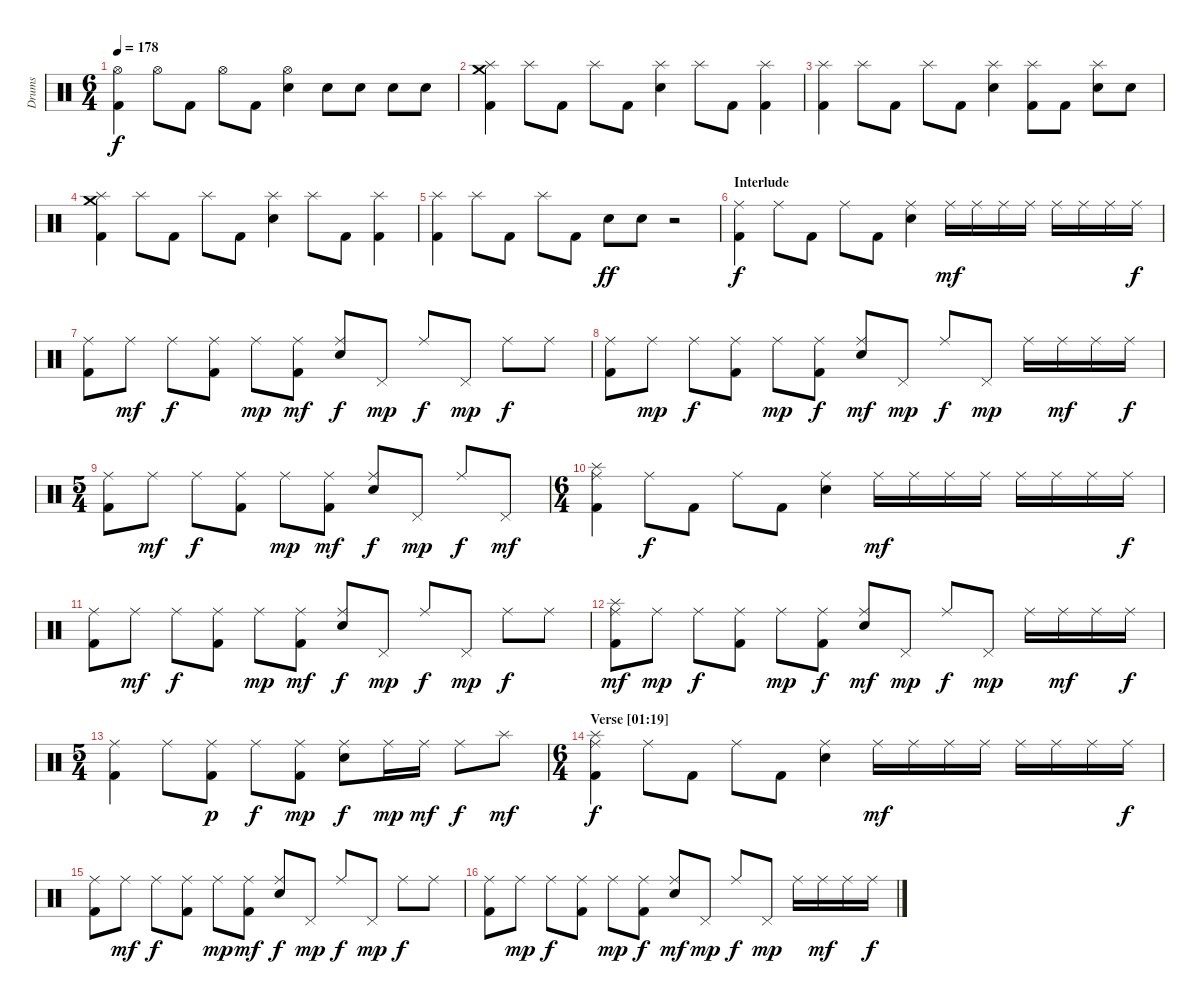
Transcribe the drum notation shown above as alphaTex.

\track ("Drums" "Drums") {instrument percussion}
\staff {score}
\articulation defaults
\ts (6 4)
\tempo 178
\clef neutral
\ks c
("Hi-Hat (open)" "Kick (hit) 2").4{dy f} "Hi-Hat (open)".8 "Kick (hit) 2".8 "Hi-Hat (open)".8 "Kick (hit) 2".8 ("Hi-Hat (open)" "Electric Snare (hit)").4 "Electric Snare (hit)".8 "Electric Snare (hit)".8 "Electric Snare (hit)".8 "Electric Snare (hit)".8 |
\section ("" "")
("Splash (hit)" "Crash medium (hit)" "Kick (hit) 2").4 "Splash (hit)".8 "Kick (hit) 2".8 "Splash (hit)".8 "Kick (hit) 2".8 ("Splash (hit)" "Electric Snare (hit)").4 "Splash (hit)".8 "Kick (hit) 2".8 ("Splash (hit)" "Kick (hit) 2").4 |
("Splash (hit)" "Kick (hit) 2").4 "Splash (hit)".8 "Kick (hit) 2".8 "Splash (hit)".8 "Kick (hit) 2".8 ("Splash (hit)" "Electric Snare (hit)").4 ("Splash (hit)" "Kick (hit) 2").8 "Kick (hit) 2".8 ("Splash (hit)" "Electric Snare (hit)").8 "Electric Snare (hit)".8 |
("Splash (hit)" "Crash medium (hit)" "Kick (hit) 2").4 "Splash (hit)".8 "Kick (hit) 2".8 "Splash (hit)".8 "Kick (hit) 2".8 ("Splash (hit)" "Electric Snare (hit)").4 "Splash (hit)".8 "Kick (hit) 2".8 ("Splash (hit)" "Kick (hit) 2").4 |
("Splash (hit)" "Kick (hit) 2").4 "Splash (hit)".8 "Kick (hit) 2".8 "Splash (hit)".8 "Kick (hit) 2".8 "Electric Snare (hit)".8{dy ff} "Electric Snare (hit)".8 r.2 |
\section ("" "Interlude")
("Ride (middle)" "Kick (hit) 2").4{dy f} "Ride (middle)".8 "Kick (hit) 2".8 "Ride (middle)".8 "Kick (hit) 2".8 ("Ride (middle)" "Electric Snare (hit)").4 "Ride (middle)".16{dy mf} "Ride (middle)".16 "Ride (middle)".16 "Ride (middle)".16 "Ride (middle)".16 "Ride (middle)".16 "Ride (middle)".16 "Ride (middle)".16{dy f} |
("Ride (middle)" "Kick (hit) 2").8 "Ride (middle)".8{dy mf} "Ride (middle)".8{dy f} ("Ride (middle)" "Kick (hit) 2").8 "Ride (middle)".8{dy mp} ("Ride (middle)" "Kick (hit) 2").8{dy mf} ("Ride (middle)" "Electric Snare (hit)").8{dy f} "Pedal Hi-Hat (hit)".8{dy mp} "Ride (middle)".8{dy f} "Pedal Hi-Hat (hit)".8{dy mp} "Ride (middle)".8{dy f} "Ride (middle)".8 |
("Ride (middle)" "Kick (hit) 2").8 "Ride (middle)".8{dy mp} "Ride (middle)".8{dy f} ("Ride (middle)" "Kick (hit) 2").8 "Ride (middle)".8{dy mp} ("Ride (middle)" "Kick (hit) 2").8{dy f} ("Ride (middle)" "Electric Snare (hit)").8{dy mf} "Pedal Hi-Hat (hit)".8{dy mp} "Ride (middle)".8{dy f} "Pedal Hi-Hat (hit)".8{dy mp} "Ride (middle)".16 "Ride (middle)".16{dy mf} "Ride (middle)".16 "Ride (middle)".16{dy f} |
\ts (5 4)
("Ride (middle)" "Kick (hit) 2").8 "Ride (middle)".8{dy mf} "Ride (middle)".8{dy f} ("Ride (middle)" "Kick (hit) 2").8 "Ride (middle)".8{dy mp} ("Ride (middle)" "Kick (hit) 2").8{dy mf} ("Ride (middle)" "Electric Snare (hit)").8{dy f} "Pedal Hi-Hat (hit)".8{dy mp} "Ride (middle)".8{dy f} "Pedal Hi-Hat (hit)".8{dy mf} |
\ts (6 4)
("Ride (middle)" "Splash (hit)" "Kick (hit) 2").4 "Ride (middle)".8{dy f} "Kick (hit) 2".8 "Ride (middle)".8 "Kick (hit) 2".8 ("Ride (middle)" "Electric Snare (hit)").4 "Ride (middle)".16{dy mf} "Ride (middle)".16 "Ride (middle)".16 "Ride (middle)".16 "Ride (middle)".16 "Ride (middle)".16 "Ride (middle)".16 "Ride (middle)".16{dy f} |
("Ride (middle)" "Kick (hit) 2").8 "Ride (middle)".8{dy mf} "Ride (middle)".8{dy f} ("Ride (middle)" "Kick (hit) 2").8 "Ride (middle)".8{dy mp} ("Ride (middle)" "Kick (hit) 2").8{dy mf} ("Ride (middle)" "Electric Snare (hit)").8{dy f} "Pedal Hi-Hat (hit)".8{dy mp} "Ride (middle)".8{dy f} "Pedal Hi-Hat (hit)".8{dy mp} "Ride (middle)".8{dy f} "Ride (middle)".8 |
("Ride (middle)" "Splash (hit)" "Kick (hit) 2").8{dy mf} "Ride (middle)".8{dy mp} "Ride (middle)".8{dy f} ("Ride (middle)" "Kick (hit) 2").8 "Ride (middle)".8{dy mp} ("Ride (middle)" "Kick (hit) 2").8{dy f} ("Ride (middle)" "Electric Snare (hit)").8{dy mf} "Pedal Hi-Hat (hit)".8{dy mp} "Ride (middle)".8{dy f} "Pedal Hi-Hat (hit)".8{dy mp} "Ride (middle)".16 "Ride (middle)".16{dy mf} "Ride (middle)".16 "Ride (middle)".16{dy f} |
\ts (5 4)
("Ride (middle)" "Kick (hit) 2").4 "Ride (middle)".8 ("Ride (middle)" "Kick (hit) 2").8{dy p} "Ride (middle)".8{dy f} ("Ride (middle)" "Kick (hit) 2").8{dy mp} ("Ride (middle)" "Electric Snare (hit)").8{dy f} "Ride (middle)".16{dy mp} "Ride (middle)".16{dy mf} "Ride (middle)".8{dy f} "Splash (hit)".8{dy mf} |
\ts (6 4)
\section ("" "Verse [01:19]")
("Ride (middle)" "Splash (hit)" "Kick (hit) 2").4{dy f} "Ride (middle)".8 "Kick (hit) 2".8 "Ride (middle)".8 "Kick (hit) 2".8 ("Ride (middle)" "Electric Snare (hit)").4 "Ride (middle)".16{dy mf} "Ride (middle)".16 "Ride (middle)".16 "Ride (middle)".16 "Ride (middle)".16 "Ride (middle)".16 "Ride (middle)".16 "Ride (middle)".16{dy f} |
("Ride (middle)" "Kick (hit) 2").8 "Ride (middle)".8{dy mf} "Ride (middle)".8{dy f} ("Ride (middle)" "Kick (hit) 2").8 "Ride (middle)".8{dy mp} ("Ride (middle)" "Kick (hit) 2").8{dy mf} ("Ride (middle)" "Electric Snare (hit)").8{dy f} "Pedal Hi-Hat (hit)".8{dy mp} "Ride (middle)".8{dy f} "Pedal Hi-Hat (hit)".8{dy mp} "Ride (middle)".8{dy f} "Ride (middle)".8 |
("Ride (middle)" "Kick (hit) 2").8 "Ride (middle)".8{dy mp} "Ride (middle)".8{dy f} ("Ride (middle)" "Kick (hit) 2").8 "Ride (middle)".8{dy mp} ("Ride (middle)" "Kick (hit) 2").8{dy f} ("Ride (middle)" "Electric Snare (hit)").8{dy mf} "Pedal Hi-Hat (hit)".8{dy mp} "Ride (middle)".8{dy f} "Pedal Hi-Hat (hit)".8{dy mp} "Ride (middle)".16 "Ride (middle)".16{dy mf} "Ride (middle)".16 "Ride (middle)".16{dy f}
